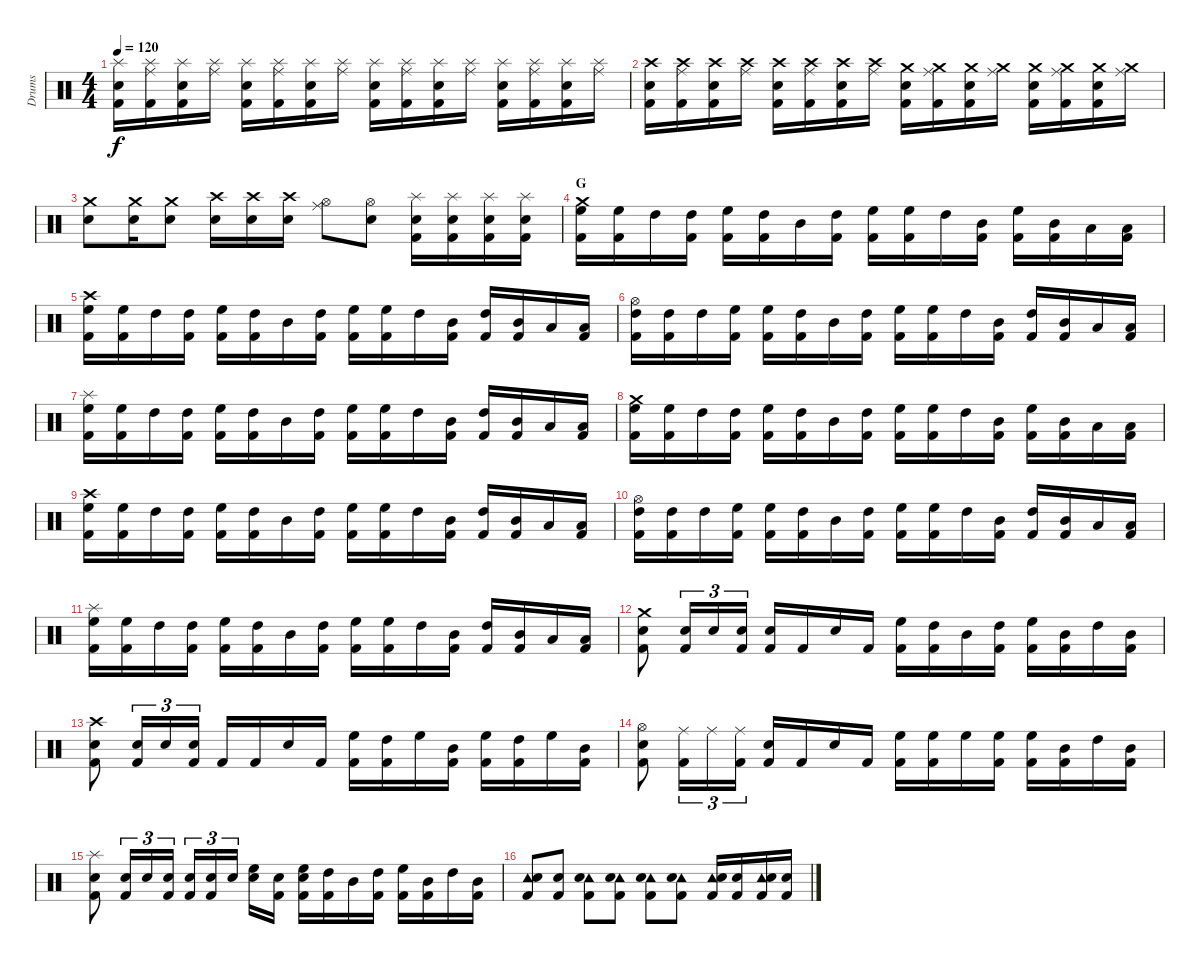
\track ("Drums" "Drums") {instrument percussion}
\staff {score}
\articulation defaults
\ts (4 4)
\tempo 120
\clef neutral
\ks c
("Splash (hit)" "Electric Snare (hit)" "Kick (hit) 2").16{dy f} ("Splash (hit)" "Ride (middle)" "Kick (hit) 2").16 ("Splash (hit)" "Electric Snare (hit)" "Kick (hit) 2").16 ("Splash (hit)" "Ride (middle)").16 ("Splash (hit)" "Electric Snare (hit)" "Kick (hit) 2").16 ("Splash (hit)" "Ride (middle)" "Kick (hit) 2").16 ("Splash (hit)" "Electric Snare (hit)" "Kick (hit) 2").16 ("Splash (hit)" "Ride (middle)").16 ("Splash (hit)" "Electric Snare (hit)" "Kick (hit) 2").16 ("Splash (hit)" "Ride (middle)" "Kick (hit) 2").16 ("Splash (hit)" "Electric Snare (hit)" "Kick (hit) 2").16 ("Splash (hit)" "Ride (middle)").16 ("Splash (hit)" "Electric Snare (hit)" "Kick (hit) 2").16 ("Splash (hit)" "Ride (middle)" "Kick (hit) 2").16 ("Splash (hit)" "Electric Snare (hit)" "Kick (hit) 2").16 ("Splash (hit)" "Ride (middle)").16 |
("Crash high (hit)" "Electric Snare (hit)" "Kick (hit) 2").16 ("Crash high (hit)" "Ride (middle)" "Kick (hit) 2").16 ("Crash high (hit)" "Electric Snare (hit)" "Kick (hit) 2").16 ("Crash high (hit)" "Ride (middle)").16 ("Crash high (hit)" "Electric Snare (hit)" "Kick (hit) 2").16 ("Crash high (hit)" "Ride (middle)" "Kick (hit) 2").16 ("Crash high (hit)" "Electric Snare (hit)" "Kick (hit) 2").16 ("Crash high (hit)" "Ride (middle)").16 ("Crash medium (hit)" "Electric Snare (hit)" "Kick (hit) 2").16 ("Crash medium (hit)" "Ride (middle)" "Kick (hit) 2").16 ("Crash medium (hit)" "Electric Snare (hit)" "Kick (hit) 2").16 ("Crash medium (hit)" "Ride (middle)").16 ("Crash medium (hit)" "Electric Snare (hit)" "Kick (hit) 2").16 ("Crash medium (hit)" "Ride (middle)" "Kick (hit) 2").16 ("Crash medium (hit)" "Electric Snare (hit)" "Kick (hit) 2").16 ("Crash medium (hit)" "Ride (middle)").16 |
("Crash medium (hit)" "Electric Snare (hit)").8 ("Crash medium (hit)" "Snare (hit) 2").16 ("Crash medium (hit)" "Electric Snare (hit)").8 ("Crash high (hit)" "Electric Snare (hit)").16 ("Crash high (hit)" "Snare (hit) 2").16 ("Crash high (hit)" "Electric Snare (hit)").16 ("Hi-Hat (open)" "Ride (middle)").8 ("Hi-Hat (open)" "Electric Snare (hit)").8 ("Splash (hit)" "Electric Snare (hit)" "Kick (hit) 2").16 ("Splash (hit)" "Electric Snare (hit)" "Kick (hit) 2").16 ("Splash (hit)" "Electric Snare (hit)" "Kick (hit) 2").16 ("Splash (hit)" "Electric Snare (hit)" "Kick (hit) 2").16 |
\section ("" "G")
("Crash medium (hit)" "High Floor Tom (hit)" "Kick (hit) 2").16 ("High Floor Tom (hit)" "Kick (hit) 2").16 "High Tom (hit)".16 ("High Tom (hit)" "Kick (hit) 2").16 ("High Floor Tom (hit)" "Kick (hit) 2").16 ("High Tom (hit)" "Kick (hit) 2").16 "Mid Tom (hit)".16 ("High Tom (hit)" "Kick (hit) 2").16 ("High Floor Tom (hit)" "Kick (hit) 2").16 ("High Floor Tom (hit)" "Kick (hit) 2").16 "High Tom (hit)".16 ("Mid Tom (hit)" "Kick (hit) 2").16 ("High Floor Tom (hit)" "Kick (hit) 2").16 ("Mid Tom (hit)" "Kick (hit) 2").16 "Low Tom (hit)".16 ("Low Floor Tom (hit)" "Kick (hit) 2").16 |
("Crash high (hit)" "High Floor Tom (hit)" "Kick (hit) 2").16 ("High Floor Tom (hit)" "Kick (hit) 2").16 "High Tom (hit)".16 ("High Tom (hit)" "Kick (hit) 2").16 ("High Floor Tom (hit)" "Kick (hit) 2").16 ("High Tom (hit)" "Kick (hit) 2").16 "Mid Tom (hit)".16 ("High Tom (hit)" "Kick (hit) 2").16 ("High Floor Tom (hit)" "Kick (hit) 2").16 ("High Floor Tom (hit)" "Kick (hit) 2").16 "High Tom (hit)".16 ("Mid Tom (hit)" "Kick (hit) 2").16 ("High Tom (hit)" "Kick (hit) 2").16 ("Mid Tom (hit)" "Kick (hit) 2").16 "Low Tom (hit)".16 ("Low Floor Tom (hit)" "Kick (hit) 2").16 |
("Hi-Hat (open)" "High Tom (hit)" "Kick (hit) 2").16 ("High Tom (hit)" "Kick (hit) 2").16 "High Tom (hit)".16 ("High Floor Tom (hit)" "Kick (hit) 2").16 ("High Floor Tom (hit)" "Kick (hit) 2").16 ("High Tom (hit)" "Kick (hit) 2").16 "Mid Tom (hit)".16 ("High Tom (hit)" "Kick (hit) 2").16 ("High Floor Tom (hit)" "Kick (hit) 2").16 ("High Floor Tom (hit)" "Kick (hit) 2").16 "High Tom (hit)".16 ("Mid Tom (hit)" "Kick (hit) 2").16 ("High Tom (hit)" "Kick (hit) 2").16 ("Mid Tom (hit)" "Kick (hit) 2").16 "Low Tom (hit)".16 ("Low Floor Tom (hit)" "Kick (hit) 2").16 |
("Splash (hit)" "High Floor Tom (hit)" "Kick (hit) 2").16 ("High Floor Tom (hit)" "Kick (hit) 2").16 "High Tom (hit)".16 ("High Tom (hit)" "Kick (hit) 2").16 ("High Floor Tom (hit)" "Kick (hit) 2").16 ("High Tom (hit)" "Kick (hit) 2").16 "Mid Tom (hit)".16 ("High Tom (hit)" "Kick (hit) 2").16 ("High Floor Tom (hit)" "Kick (hit) 2").16 ("High Floor Tom (hit)" "Kick (hit) 2").16 "High Tom (hit)".16 ("Mid Tom (hit)" "Kick (hit) 2").16 ("High Tom (hit)" "Kick (hit) 2").16 ("Mid Tom (hit)" "Kick (hit) 2").16 "Low Tom (hit)".16 ("Low Floor Tom (hit)" "Kick (hit) 2").16 |
("Crash medium (hit)" "High Floor Tom (hit)" "Kick (hit) 2").16 ("High Floor Tom (hit)" "Kick (hit) 2").16 "High Tom (hit)".16 ("High Tom (hit)" "Kick (hit) 2").16 ("High Floor Tom (hit)" "Kick (hit) 2").16 ("High Tom (hit)" "Kick (hit) 2").16 "Mid Tom (hit)".16 ("High Tom (hit)" "Kick (hit) 2").16 ("High Floor Tom (hit)" "Kick (hit) 2").16 ("High Floor Tom (hit)" "Kick (hit) 2").16 "High Tom (hit)".16 ("Mid Tom (hit)" "Kick (hit) 2").16 ("High Floor Tom (hit)" "Kick (hit) 2").16 ("Mid Tom (hit)" "Kick (hit) 2").16 "Low Tom (hit)".16 ("Low Floor Tom (hit)" "Kick (hit) 2").16 |
("Crash high (hit)" "High Floor Tom (hit)" "Kick (hit) 2").16 ("High Floor Tom (hit)" "Kick (hit) 2").16 "High Tom (hit)".16 ("High Tom (hit)" "Kick (hit) 2").16 ("High Floor Tom (hit)" "Kick (hit) 2").16 ("High Tom (hit)" "Kick (hit) 2").16 "Mid Tom (hit)".16 ("High Tom (hit)" "Kick (hit) 2").16 ("High Floor Tom (hit)" "Kick (hit) 2").16 ("High Floor Tom (hit)" "Kick (hit) 2").16 "High Tom (hit)".16 ("Mid Tom (hit)" "Kick (hit) 2").16 ("High Tom (hit)" "Kick (hit) 2").16 ("Mid Tom (hit)" "Kick (hit) 2").16 "Low Tom (hit)".16 ("Low Floor Tom (hit)" "Kick (hit) 2").16 |
("Hi-Hat (open)" "High Tom (hit)" "Kick (hit) 2").16 ("High Tom (hit)" "Kick (hit) 2").16 "High Tom (hit)".16 ("High Floor Tom (hit)" "Kick (hit) 2").16 ("High Floor Tom (hit)" "Kick (hit) 2").16 ("High Tom (hit)" "Kick (hit) 2").16 "Mid Tom (hit)".16 ("High Tom (hit)" "Kick (hit) 2").16 ("High Floor Tom (hit)" "Kick (hit) 2").16 ("High Floor Tom (hit)" "Kick (hit) 2").16 "High Tom (hit)".16 ("Mid Tom (hit)" "Kick (hit) 2").16 ("High Tom (hit)" "Kick (hit) 2").16 ("Mid Tom (hit)" "Kick (hit) 2").16 "Low Tom (hit)".16 ("Low Floor Tom (hit)" "Kick (hit) 2").16 |
("Splash (hit)" "High Floor Tom (hit)" "Kick (hit) 2").16 ("High Floor Tom (hit)" "Kick (hit) 2").16 "High Tom (hit)".16 ("High Tom (hit)" "Kick (hit) 2").16 ("High Floor Tom (hit)" "Kick (hit) 2").16 ("High Tom (hit)" "Kick (hit) 2").16 "Mid Tom (hit)".16 ("High Tom (hit)" "Kick (hit) 2").16 ("High Floor Tom (hit)" "Kick (hit) 2").16 ("High Floor Tom (hit)" "Kick (hit) 2").16 "High Tom (hit)".16 ("Mid Tom (hit)" "Kick (hit) 2").16 ("High Tom (hit)" "Kick (hit) 2").16 ("Mid Tom (hit)" "Kick (hit) 2").16 "Low Tom (hit)".16 ("Low Floor Tom (hit)" "Kick (hit) 2").16 |
("Crash medium (hit)" "Electric Snare (hit)" "Kick (hit) 2").8 ("Electric Snare (hit)" "Kick (hit) 2").16{tu (3 2)} "Electric Snare (hit)".16{tu (3 2)} ("Electric Snare (hit)" "Kick (hit) 2").16{tu (3 2)} ("Electric Snare (hit)" "Kick (hit) 2").16 "Kick (hit) 2".16 "Electric Snare (hit)".16 "Kick (hit) 2".16 ("High Floor Tom (hit)" "Kick (hit) 2").16 ("High Tom (hit)" "Kick (hit) 2").16 "Mid Tom (hit)".16 ("High Tom (hit)" "Kick (hit) 2").16 ("High Floor Tom (hit)" "Kick (hit) 2").16 ("Mid Tom (hit)" "Kick (hit) 2").16 "High Tom (hit)".16 ("Mid Tom (hit)" "Kick (hit) 2").16 |
("Crash high (hit)" "Electric Snare (hit)" "Kick (hit) 2").8 ("Electric Snare (hit)" "Kick (hit) 2").16{tu (3 2)} "Snare (hit) 2".16{tu (3 2)} ("Electric Snare (hit)" "Kick (hit) 2").16{tu (3 2)} "Kick (hit) 2".16 "Kick (hit) 2".16 "Electric Snare (hit)".16 "Kick (hit) 2".16 ("High Floor Tom (hit)" "Kick (hit) 2").16 ("High Tom (hit)" "Kick (hit) 2").16 "High Floor Tom (hit)".16 ("Mid Tom (hit)" "Kick (hit) 2").16 ("High Floor Tom (hit)" "Kick (hit) 2").16 ("High Tom (hit)" "Kick (hit) 2").16 "High Floor Tom (hit)".16 ("Mid Tom (hit)" "Kick (hit) 2").16 |
("Hi-Hat (open)" "Electric Snare (hit)" "Kick (hit) 2").8 ("Ride (middle)" "Kick (hit) 2").16{tu (3 2)} "Ride (middle)".16{tu (3 2)} ("Ride (middle)" "Kick (hit) 2").16{tu (3 2)} ("Electric Snare (hit)" "Kick (hit) 2").16 "Kick (hit) 2".16 "Electric Snare (hit)".16 "Kick (hit) 2".16 ("High Floor Tom (hit)" "Kick (hit) 2").16 ("High Floor Tom (hit)" "Kick (hit) 2").16 "High Floor Tom (hit)".16 ("High Floor Tom (hit)" "Kick (hit) 2").16 ("High Floor Tom (hit)" "Kick (hit) 2").16 ("Mid Tom (hit)" "Kick (hit) 2").16 "High Tom (hit)".16 ("Mid Tom (hit)" "Kick (hit) 2").16 |
("Splash (hit)" "Electric Snare (hit)" "Kick (hit) 2").8 ("Electric Snare (hit)" "Kick (hit) 2").16{tu (3 2)} "Snare (hit) 2".16{tu (3 2)} ("Electric Snare (hit)" "Kick (hit) 2").16{tu (3 2)} ("Snare (hit) 2" "Kick (hit) 2").16{tu (3 2)} ("Snare (hit) 2" "Kick (hit) 2").16{tu (3 2)} "Electric Snare (hit)".16{tu (3 2)} ("High Floor Tom (hit)" "Snare (hit) 2").16 ("Electric Snare (hit)" "Kick (hit) 2").16 ("High Floor Tom (hit)" "Snare (hit) 2" "Kick (hit) 2").16 ("High Tom (hit)" "Kick (hit) 2").16 "Mid Tom (hit)".16 ("High Tom (hit)" "Kick (hit) 2").16 ("High Floor Tom (hit)" "Kick (hit) 2").16 ("Mid Tom (hit)" "Kick (hit) 2").16 "High Tom (hit)".16 ("Mid Tom (hit)" "Kick (hit) 2").16 |
("Tambourine (hit)" "Electric Snare (hit)" "Kick (hit) 2").8 ("Electric Snare (hit)" "Kick (hit) 2").8 ("Tambourine (hit)" "Electric Snare (hit)" "Kick (hit) 2").8 ("Tambourine (hit)" "Electric Snare (hit)" "Kick (hit) 2").8 ("Tambourine (hit)" "Electric Snare (hit)" "Kick (hit) 2").8 ("Tambourine (hit)" "Electric Snare (hit)" "Kick (hit) 2").8 ("Tambourine (hit)" "Electric Snare (hit)" "Kick (hit) 2").16 ("Electric Snare (hit)" "Kick (hit) 2").16 ("Tambourine (hit)" "Electric Snare (hit)" "Kick (hit) 2").16 ("Electric Snare (hit)" "Kick (hit) 2").16
